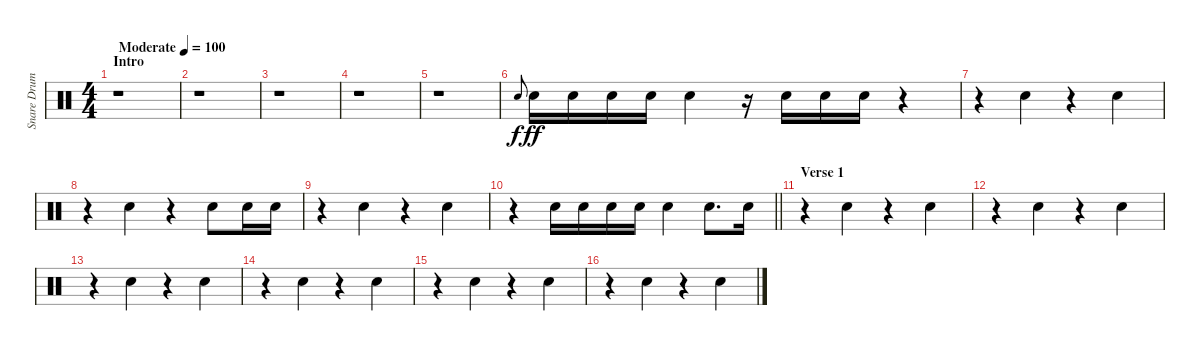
\track ("Snare Drum" "Snare Drum") {instrument percussion}
\staff {score}
\articulation defaults
\ts (4 4)
\section ("" "Intro")
\tempo (100 "Moderate")
\clef neutral
\ks c
r.1{dy f volume 11} |
r.1 |
r.1 |
r.1 |
r.1 |
"Electric Snare (hit)".8{gr onbeat} "Electric Snare (hit)".16{dy ff} "Electric Snare (hit)".16 "Electric Snare (hit)".16 "Electric Snare (hit)".16 "Electric Snare (hit)".4 r.16 "Electric Snare (hit)".16 "Electric Snare (hit)".16 "Electric Snare (hit)".16 r.4 |
r.4 "Electric Snare (hit)".4 r.4 "Electric Snare (hit)".4 |
r.4 "Electric Snare (hit)".4 r.4 "Electric Snare (hit)".8 "Electric Snare (hit)".16 "Electric Snare (hit)".16 |
r.4 "Electric Snare (hit)".4 r.4 "Electric Snare (hit)".4 |
\barLineRight lightlight
r.4 "Electric Snare (hit)".16 "Electric Snare (hit)".16 "Electric Snare (hit)".16 "Electric Snare (hit)".16 "Electric Snare (hit)".4 "Electric Snare (hit)".8{d} "Electric Snare (hit)".16 |
\section ("" "Verse 1")
r.4 "Electric Snare (hit)".4 r.4 "Electric Snare (hit)".4 |
r.4 "Electric Snare (hit)".4 r.4 "Electric Snare (hit)".4 |
r.4 "Electric Snare (hit)".4 r.4 "Electric Snare (hit)".4 |
r.4 "Electric Snare (hit)".4 r.4 "Electric Snare (hit)".4 |
r.4 "Electric Snare (hit)".4 r.4 "Electric Snare (hit)".4 |
r.4 "Electric Snare (hit)".4 r.4 "Electric Snare (hit)".4
